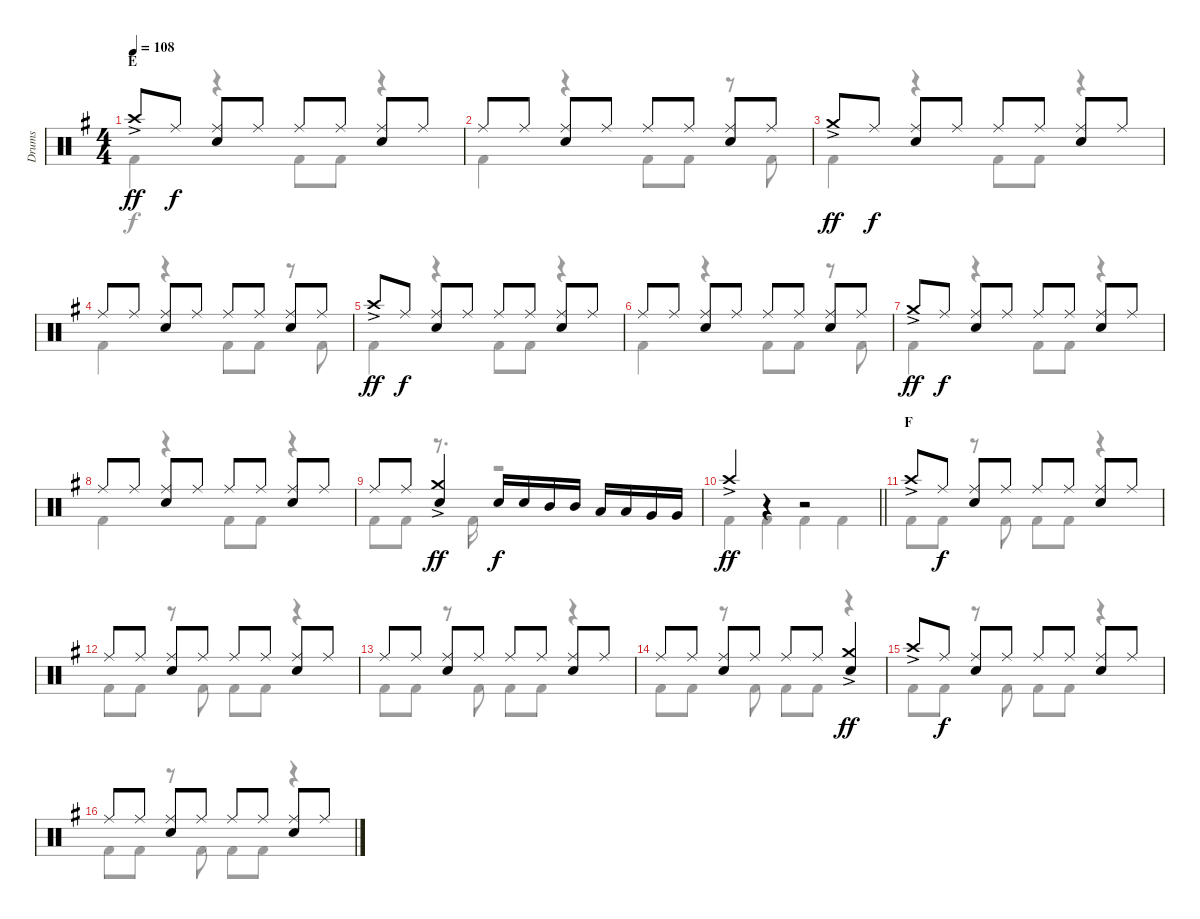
\track ("Drums" "Drums") {instrument percussion}
\staff {score}
\articulation defaults
\voice
\ts (4 4)
\section ("" "E")
\tempo 108
\clef neutral
\ks g "Crash high (hit)"{ac}.8{dy ff} "Ride (middle)".8{dy f}
("Ride (middle)" "Snare (hit) 2").8 "Ride (middle)".8 "Ride (middle)".8 "Ride (middle)".8 ("Ride (middle)" "Snare (hit) 2").8 "Ride (middle)".8 |
"Ride (middle)".8 "Ride (middle)".8 ("Ride (middle)" "Snare (hit) 2").8 "Ride (middle)".8 "Ride (middle)".8 "Ride (middle)".8 ("Ride (middle)" "Snare (hit) 2").8 "Ride (middle)".8 |
"Crash medium (hit)"{ac}.8{dy ff} "Ride (middle)".8{dy f} ("Ride (middle)" "Snare (hit) 2").8 "Ride (middle)".8 "Ride (middle)".8 "Ride (middle)".8 ("Ride (middle)" "Snare (hit) 2").8 "Ride (middle)".8 |
"Ride (middle)".8 "Ride (middle)".8 ("Ride (middle)" "Snare (hit) 2").8 "Ride (middle)".8 "Ride (middle)".8 "Ride (middle)".8 ("Ride (middle)" "Snare (hit) 2").8 "Ride (middle)".8 |
"Crash high (hit)"{ac}.8{dy ff} "Ride (middle)".8{dy f} ("Ride (middle)" "Snare (hit) 2").8 "Ride (middle)".8 "Ride (middle)".8 "Ride (middle)".8 ("Ride (middle)" "Snare (hit) 2").8 "Ride (middle)".8 |
"Ride (middle)".8 "Ride (middle)".8 ("Ride (middle)" "Snare (hit) 2").8 "Ride (middle)".8 "Ride (middle)".8 "Ride (middle)".8 ("Ride (middle)" "Snare (hit) 2").8 "Ride (middle)".8 |
"Crash medium (hit)"{ac}.8{dy ff} "Ride (middle)".8{dy f} ("Ride (middle)" "Snare (hit) 2").8 "Ride (middle)".8 "Ride (middle)".8 "Ride (middle)".8 ("Ride (middle)" "Snare (hit) 2").8 "Ride (middle)".8 |
"Ride (middle)".8 "Ride (middle)".8 ("Ride (middle)" "Snare (hit) 2").8 "Ride (middle)".8 "Ride (middle)".8 "Ride (middle)".8 ("Ride (middle)" "Snare (hit) 2").8 "Ride (middle)".8 |
"Ride (middle)".8 "Ride (middle)".8 ("Crash medium (hit)"{ac} "Snare (hit) 2").4{dy ff} "Snare (hit) 2".16{dy f} "Snare (hit) 2".16 "Mid Tom (hit)".16 "Mid Tom (hit)".16 "Low Tom (hit)".16 "Low Tom (hit)".16 "Very Low Tom (hit)".16 "Very Low Tom (hit)".16 |
\barLineRight lightlight "Crash high (hit)"{ac}.4{dy ff}
r.4 r.2 |
\section ("" "F")
"Crash high (hit)"{ac}.8 "Ride (middle)".8{dy f} ("Ride (middle)" "Snare (hit) 2").8 "Ride (middle)".8 "Ride (middle)".8 "Ride (middle)".8 ("Ride (middle)" "Snare (hit) 2").8 "Ride (middle)".8 |
"Ride (middle)".8 "Ride (middle)".8 ("Ride (middle)" "Snare (hit) 2").8 "Ride (middle)".8 "Ride (middle)".8 "Ride (middle)".8 ("Ride (middle)" "Snare (hit) 2").8 "Ride (middle)".8 |
"Ride (middle)".8 "Ride (middle)".8 ("Ride (middle)" "Snare (hit) 2").8 "Ride (middle)".8 "Ride (middle)".8 "Ride (middle)".8 ("Ride (middle)" "Snare (hit) 2").8 "Ride (middle)".8 |
"Ride (middle)".8 "Ride (middle)".8 ("Ride (middle)" "Snare (hit) 2").8 "Ride (middle)".8 "Ride (middle)".8 "Ride (middle)".8 ("Crash medium (hit)"{ac} "Snare (hit) 2").4{dy ff} |
"Crash high (hit)"{ac}.8 "Ride (middle)".8{dy f} ("Ride (middle)" "Snare (hit) 2").8 "Ride (middle)".8 "Ride (middle)".8 "Ride (middle)".8 ("Ride (middle)" "Snare (hit) 2").8 "Ride (middle)".8 |
"Ride (middle)".8 "Ride (middle)".8 ("Ride (middle)" "Snare (hit) 2").8 "Ride (middle)".8 "Ride (middle)".8 "Ride (middle)".8 ("Ride (middle)" "Snare (hit) 2").8 "Ride (middle)".8
\voice
\clef neutral
\ottava regular
\simile none
\ks g "Kick (hit) 2".4{dy f}
r.4 "Kick (hit) 2".8 "Kick (hit) 2".8 r.4 |
"Kick (hit) 2".4 r.4 "Kick (hit) 2".8 "Kick (hit) 2".8 r.8 "Kick (hit) 2".8 |
"Kick (hit) 2".4 r.4 "Kick (hit) 2".8 "Kick (hit) 2".8 r.4 |
"Kick (hit) 2".4 r.4 "Kick (hit) 2".8 "Kick (hit) 2".8 r.8 "Kick (hit) 2".8 |
"Kick (hit) 2".4 r.4 "Kick (hit) 2".8 "Kick (hit) 2".8 r.4 |
"Kick (hit) 2".4 r.4 "Kick (hit) 2".8 "Kick (hit) 2".8 r.8 "Kick (hit) 2".8 |
"Kick (hit) 2".4 r.4 "Kick (hit) 2".8 "Kick (hit) 2".8 r.4 |
"Kick (hit) 2".4 r.4 "Kick (hit) 2".8 "Kick (hit) 2".8 r.4 |
"Kick (hit) 2".8 "Kick (hit) 2".8 r.8{d} "Kick (hit) 2".16 r.2 |
\barLineRight lightlight "Kick (hit) 2".4 "Kick (hit) 2".4 "Kick (hit) 2".4 "Kick (hit) 2".4
|
"Kick (hit) 2".8 "Kick (hit) 2".8 r.8 "Kick (hit) 2".8 "Kick (hit) 2".8 "Kick (hit) 2".8 r.4 |
"Kick (hit) 2".8 "Kick (hit) 2".8 r.8 "Kick (hit) 2".8 "Kick (hit) 2".8 "Kick (hit) 2".8 r.4 |
"Kick (hit) 2".8 "Kick (hit) 2".8 r.8 "Kick (hit) 2".8 "Kick (hit) 2".8 "Kick (hit) 2".8 r.4 |
"Kick (hit) 2".8 "Kick (hit) 2".8 r.8 "Kick (hit) 2".8 "Kick (hit) 2".8 "Kick (hit) 2".8 r.4 |
"Kick (hit) 2".8 "Kick (hit) 2".8 r.8 "Kick (hit) 2".8 "Kick (hit) 2".8 "Kick (hit) 2".8 r.4 |
"Kick (hit) 2".8 "Kick (hit) 2".8 r.8 "Kick (hit) 2".8 "Kick (hit) 2".8 "Kick (hit) 2".8 r.4
